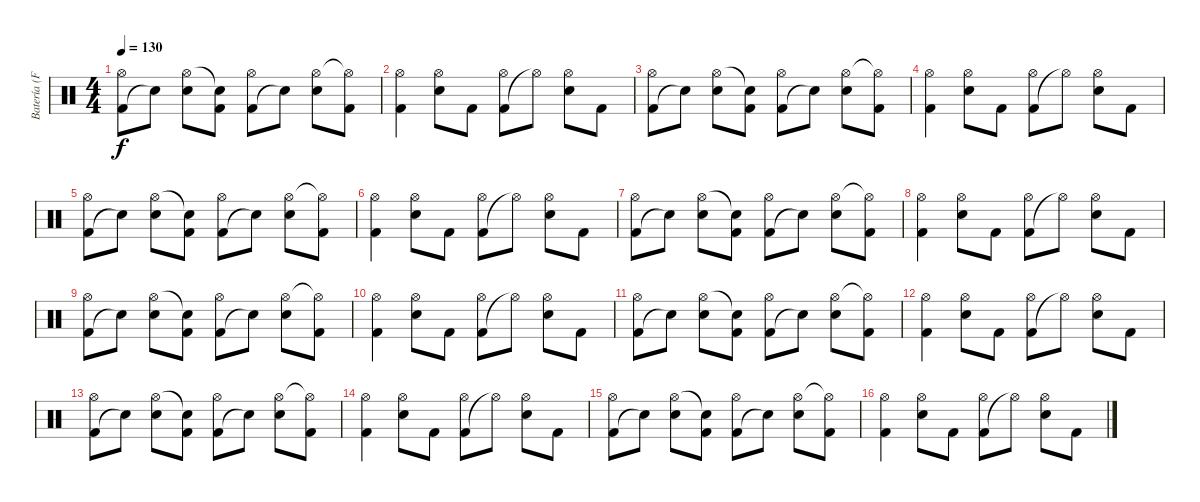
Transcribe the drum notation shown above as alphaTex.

\track ("Batería (F. Scarcella)" "Batería (F") {instrument percussion}
\staff {score}
\articulation defaults
\ts (4 4)
\tempo 130
\clef neutral
\ks c
("Kick (hit) 2" "Hi-Hat (open)").8{dy f} "Snare (hit)"{t}.8 ("Snare (hit) 2" "Hi-Hat (open)").8 ("Kick (hit) 2" "Snare (hit)"{t}).8 ("Kick (hit) 2" "Hi-Hat (open)").8 "Snare (hit)"{t}.8 ("Snare (hit) 2" "Hi-Hat (open)").8 ("Kick (hit) 2" "Hi-Hat (open)"{t}).8 |
("Kick (hit) 2" "Hi-Hat (open)").4 ("Snare (hit) 2" "Hi-Hat (open)").8 "Kick (hit) 2".8 ("Kick (hit) 2" "Hi-Hat (open)").8 "Hi-Hat (open)"{t}.8 ("Snare (hit) 2" "Hi-Hat (open)").8 "Kick (hit) 2".8 |
("Kick (hit) 2" "Hi-Hat (open)").8 "Snare (hit)"{t}.8 ("Snare (hit) 2" "Hi-Hat (open)").8 ("Kick (hit) 2" "Snare (hit)"{t}).8 ("Kick (hit) 2" "Hi-Hat (open)").8 "Snare (hit)"{t}.8 ("Snare (hit) 2" "Hi-Hat (open)").8 ("Kick (hit) 2" "Hi-Hat (open)"{t}).8 |
("Kick (hit) 2" "Hi-Hat (open)").4 ("Snare (hit) 2" "Hi-Hat (open)").8 "Kick (hit) 2".8 ("Kick (hit) 2" "Hi-Hat (open)").8 "Hi-Hat (open)"{t}.8 ("Snare (hit) 2" "Hi-Hat (open)").8 "Kick (hit) 2".8 |
("Kick (hit) 2" "Hi-Hat (open)").8 "Snare (hit)"{t}.8 ("Snare (hit) 2" "Hi-Hat (open)").8 ("Kick (hit) 2" "Snare (hit)"{t}).8 ("Kick (hit) 2" "Hi-Hat (open)").8 "Snare (hit)"{t}.8 ("Snare (hit) 2" "Hi-Hat (open)").8 ("Kick (hit) 2" "Hi-Hat (open)"{t}).8 |
("Kick (hit) 2" "Hi-Hat (open)").4 ("Snare (hit) 2" "Hi-Hat (open)").8 "Kick (hit) 2".8 ("Kick (hit) 2" "Hi-Hat (open)").8 "Hi-Hat (open)"{t}.8 ("Snare (hit) 2" "Hi-Hat (open)").8 "Kick (hit) 2".8 |
("Kick (hit) 2" "Hi-Hat (open)").8 "Snare (hit)"{t}.8 ("Snare (hit) 2" "Hi-Hat (open)").8 ("Kick (hit) 2" "Snare (hit)"{t}).8 ("Kick (hit) 2" "Hi-Hat (open)").8 "Snare (hit)"{t}.8 ("Snare (hit) 2" "Hi-Hat (open)").8 ("Kick (hit) 2" "Hi-Hat (open)"{t}).8 |
("Kick (hit) 2" "Hi-Hat (open)").4 ("Snare (hit) 2" "Hi-Hat (open)").8 "Kick (hit) 2".8 ("Kick (hit) 2" "Hi-Hat (open)").8 "Hi-Hat (open)"{t}.8 ("Snare (hit) 2" "Hi-Hat (open)").8 "Kick (hit) 2".8 |
("Kick (hit) 2" "Hi-Hat (open)").8 "Snare (hit)"{t}.8 ("Snare (hit) 2" "Hi-Hat (open)").8 ("Kick (hit) 2" "Snare (hit)"{t}).8 ("Kick (hit) 2" "Hi-Hat (open)").8 "Snare (hit)"{t}.8 ("Snare (hit) 2" "Hi-Hat (open)").8 ("Kick (hit) 2" "Hi-Hat (open)"{t}).8 |
("Kick (hit) 2" "Hi-Hat (open)").4 ("Snare (hit) 2" "Hi-Hat (open)").8 "Kick (hit) 2".8 ("Kick (hit) 2" "Hi-Hat (open)").8 "Hi-Hat (open)"{t}.8 ("Snare (hit) 2" "Hi-Hat (open)").8 "Kick (hit) 2".8 |
("Kick (hit) 2" "Hi-Hat (open)").8 "Snare (hit)"{t}.8 ("Snare (hit) 2" "Hi-Hat (open)").8 ("Kick (hit) 2" "Snare (hit)"{t}).8 ("Kick (hit) 2" "Hi-Hat (open)").8 "Snare (hit)"{t}.8 ("Snare (hit) 2" "Hi-Hat (open)").8 ("Kick (hit) 2" "Hi-Hat (open)"{t}).8 |
("Kick (hit) 2" "Hi-Hat (open)").4 ("Snare (hit) 2" "Hi-Hat (open)").8 "Kick (hit) 2".8 ("Kick (hit) 2" "Hi-Hat (open)").8 "Hi-Hat (open)"{t}.8 ("Snare (hit) 2" "Hi-Hat (open)").8 "Kick (hit) 2".8 |
("Kick (hit) 2" "Hi-Hat (open)").8 "Snare (hit)"{t}.8 ("Snare (hit) 2" "Hi-Hat (open)").8 ("Kick (hit) 2" "Snare (hit)"{t}).8 ("Kick (hit) 2" "Hi-Hat (open)").8 "Snare (hit)"{t}.8 ("Snare (hit) 2" "Hi-Hat (open)").8 ("Kick (hit) 2" "Hi-Hat (open)"{t}).8 |
("Kick (hit) 2" "Hi-Hat (open)").4 ("Snare (hit) 2" "Hi-Hat (open)").8 "Kick (hit) 2".8 ("Kick (hit) 2" "Hi-Hat (open)").8 "Hi-Hat (open)"{t}.8 ("Snare (hit) 2" "Hi-Hat (open)").8 "Kick (hit) 2".8 |
("Kick (hit) 2" "Hi-Hat (open)").8 "Snare (hit)"{t}.8 ("Snare (hit) 2" "Hi-Hat (open)").8 ("Kick (hit) 2" "Snare (hit)"{t}).8 ("Kick (hit) 2" "Hi-Hat (open)").8 "Snare (hit)"{t}.8 ("Snare (hit) 2" "Hi-Hat (open)").8 ("Kick (hit) 2" "Hi-Hat (open)"{t}).8 |
("Kick (hit) 2" "Hi-Hat (open)").4 ("Snare (hit) 2" "Hi-Hat (open)").8 "Kick (hit) 2".8 ("Kick (hit) 2" "Hi-Hat (open)").8 "Hi-Hat (open)"{t}.8 ("Snare (hit) 2" "Hi-Hat (open)").8 "Kick (hit) 2".8
